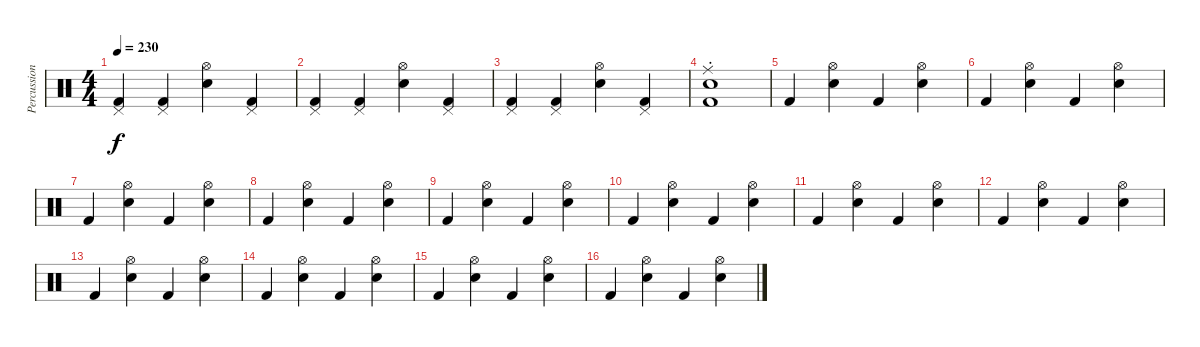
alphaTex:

\track ("Percussion" "Percussion") {instrument percussion}
\staff {score}
\articulation defaults
\ts (4 4)
\tempo 230
\clef neutral
\ks c
("Pedal Hi-Hat (hit)" "Kick (hit) 2").4{dy f} ("Pedal Hi-Hat (hit)" "Kick (hit) 2").4 ("Hi-Hat (open)" "Electric Snare (hit)").4 ("Pedal Hi-Hat (hit)" "Kick (hit) 2").4 |
("Pedal Hi-Hat (hit)" "Kick (hit) 2").4 ("Pedal Hi-Hat (hit)" "Kick (hit) 2").4 ("Hi-Hat (open)" "Electric Snare (hit)").4 ("Pedal Hi-Hat (hit)" "Kick (hit) 2").4 |
("Pedal Hi-Hat (hit)" "Kick (hit) 2").4 ("Pedal Hi-Hat (hit)" "Kick (hit) 2").4 ("Hi-Hat (open)" "Electric Snare (hit)").4 ("Pedal Hi-Hat (hit)" "Kick (hit) 2").4 |
("Ride (middle)"{st} "Electric Snare (hit)"{st} "Kick (hit) 2"{st}).1 |
"Kick (hit) 2".4 ("Hi-Hat (open)" "Electric Snare (hit)").4 "Kick (hit) 2".4 ("Hi-Hat (open)" "Electric Snare (hit)").4 |
"Kick (hit) 2".4 ("Hi-Hat (open)" "Electric Snare (hit)").4 "Kick (hit) 2".4 ("Hi-Hat (open)" "Electric Snare (hit)").4 |
"Kick (hit) 2".4 ("Hi-Hat (open)" "Electric Snare (hit)").4 "Kick (hit) 2".4 ("Hi-Hat (open)" "Electric Snare (hit)").4 |
"Kick (hit) 2".4 ("Hi-Hat (open)" "Electric Snare (hit)").4 "Kick (hit) 2".4 ("Hi-Hat (open)" "Electric Snare (hit)").4 |
"Kick (hit) 2".4 ("Hi-Hat (open)" "Electric Snare (hit)").4 "Kick (hit) 2".4 ("Hi-Hat (open)" "Electric Snare (hit)").4 |
"Kick (hit) 2".4 ("Hi-Hat (open)" "Electric Snare (hit)").4 "Kick (hit) 2".4 ("Hi-Hat (open)" "Electric Snare (hit)").4 |
"Kick (hit) 2".4 ("Hi-Hat (open)" "Electric Snare (hit)").4 "Kick (hit) 2".4 ("Hi-Hat (open)" "Electric Snare (hit)").4 |
"Kick (hit) 2".4 ("Hi-Hat (open)" "Electric Snare (hit)").4 "Kick (hit) 2".4 ("Hi-Hat (open)" "Electric Snare (hit)").4 |
"Kick (hit) 2".4 ("Hi-Hat (open)" "Electric Snare (hit)").4 "Kick (hit) 2".4 ("Hi-Hat (open)" "Electric Snare (hit)").4 |
"Kick (hit) 2".4 ("Hi-Hat (open)" "Electric Snare (hit)").4 "Kick (hit) 2".4 ("Hi-Hat (open)" "Electric Snare (hit)").4 |
"Kick (hit) 2".4 ("Hi-Hat (open)" "Electric Snare (hit)").4 "Kick (hit) 2".4 ("Hi-Hat (open)" "Electric Snare (hit)").4 |
"Kick (hit) 2".4 ("Hi-Hat (open)" "Electric Snare (hit)").4 "Kick (hit) 2".4 ("Hi-Hat (open)" "Electric Snare (hit)").4
